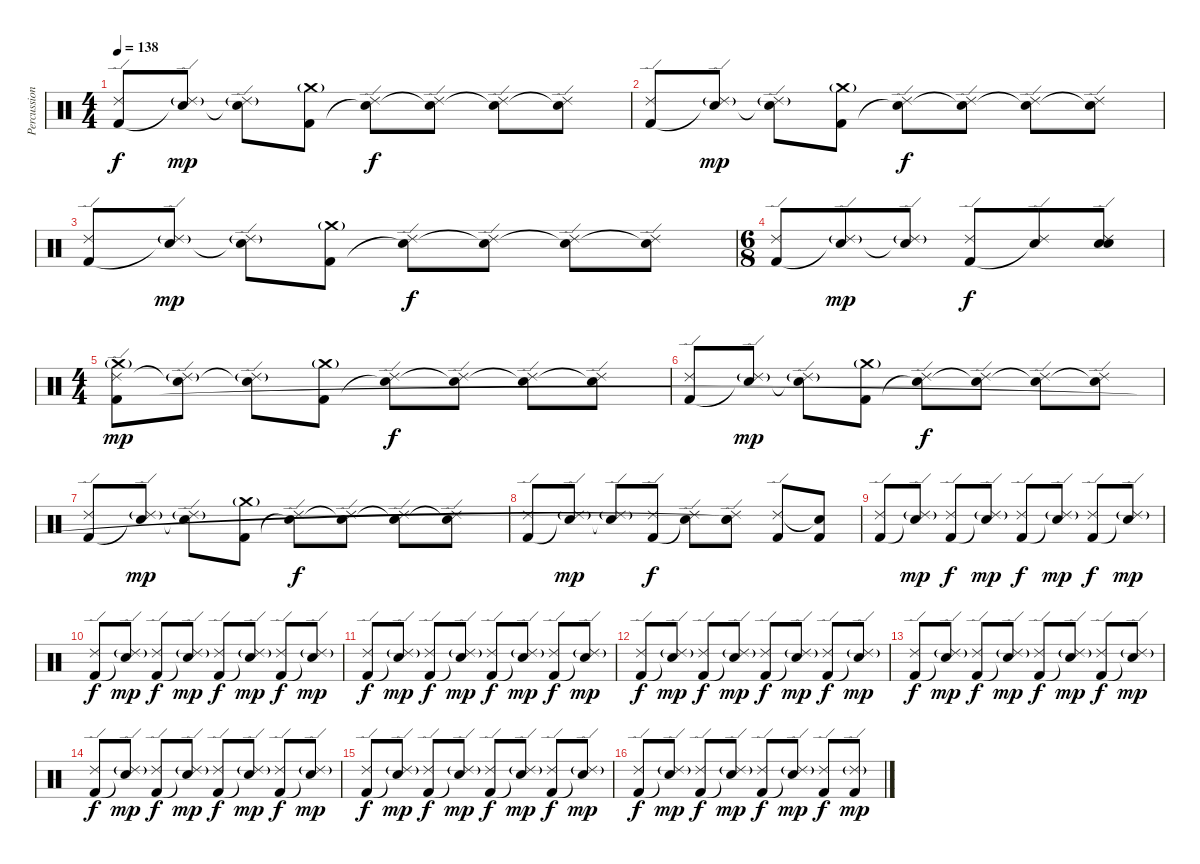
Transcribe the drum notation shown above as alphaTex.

\track ("Percussion" "Percussion") {instrument percussion}
\staff {score}
\articulation defaults
\ts (4 4)
\tempo 138
\clef neutral
\ks c
("Ride (edge) 2" "Kick (hit) 2").8{dy f} ("Ride (edge) 2"{g} "Snare (hit)"{t}).8{dy mp} ("Ride (edge) 2"{g} "Snare (hit)"{t}).8 ("Crash medium (hit)"{g} "Kick (hit) 2").8 ("Ride (edge) 2" "Snare (hit)"{t}).8{dy f} ("Ride (edge) 2" "Snare (hit)"{t}).8 ("Ride (edge) 2" "Snare (hit)"{t}).8 ("Ride (edge) 2" "Snare (hit)"{t}).8 |
("Ride (edge) 2" "Kick (hit) 2").8 ("Ride (edge) 2"{g} "Snare (hit)"{t}).8{dy mp} ("Ride (edge) 2"{g} "Snare (hit)"{t}).8 ("Crash medium (hit)"{g} "Kick (hit) 2").8 ("Ride (edge) 2" "Snare (hit)"{t}).8{dy f} ("Ride (edge) 2" "Snare (hit)"{t}).8 ("Ride (edge) 2" "Snare (hit)"{t}).8 ("Ride (edge) 2" "Snare (hit)"{t}).8 |
("Ride (edge) 2" "Kick (hit) 2").8 ("Ride (edge) 2"{g} "Snare (hit)"{t}).8{dy mp} ("Ride (edge) 2"{g} "Snare (hit)"{t}).8 ("Crash medium (hit)"{g} "Kick (hit) 2").8 ("Ride (edge) 2" "Snare (hit)"{t}).8{dy f} ("Ride (edge) 2" "Snare (hit)"{t}).8 ("Ride (edge) 2" "Snare (hit)"{t}).8 ("Ride (edge) 2" "Snare (hit)"{t}).8 |
\ts (6 8)
("Ride (edge) 2" "Kick (hit) 2").8 ("Ride (edge) 2"{g} "Snare (hit)"{t}).8{dy mp} ("Ride (edge) 2"{g} "Snare (hit)"{t}).8 ("Ride (edge) 2" "Kick (hit) 2").8{dy f} ("Ride (edge) 2" "Snare (hit)"{t}).8 ("Ride (edge) 2" "Snare (hit) 2" "Snare (hit)").8 |
\ts (4 4)
("Crash medium (hit)"{g} "Ride (edge) 2" "Kick (hit) 2").8{dy mp} ("Ride (edge) 2"{g} "Snare (hit)"{t}).8 ("Ride (edge) 2"{g} "Snare (hit)"{t}).8 ("Crash medium (hit)"{g} "Kick (hit) 2").8 ("Ride (edge) 2" "Snare (hit)"{t}).8{dy f} ("Ride (edge) 2" "Snare (hit)"{t}).8 ("Ride (edge) 2" "Snare (hit)"{t}).8 ("Ride (edge) 2" "Snare (hit)"{t}).8 |
("Ride (edge) 2" "Kick (hit) 2").8 ("Ride (edge) 2"{g} "Snare (hit)"{t}).8{dy mp} ("Ride (edge) 2"{g} "Snare (hit)"{t}).8 ("Crash medium (hit)"{g} "Kick (hit) 2").8 ("Ride (edge) 2" "Snare (hit)"{t}).8{dy f} ("Ride (edge) 2" "Snare (hit)"{t}).8 ("Ride (edge) 2" "Snare (hit)"{t}).8 ("Ride (edge) 2" "Snare (hit)"{t}).8 |
("Ride (edge) 2" "Kick (hit) 2").8 ("Ride (edge) 2"{g} "Snare (hit)"{t}).8{dy mp} ("Ride (edge) 2"{g} "Snare (hit)"{t}).8 ("Crash medium (hit)"{g} "Kick (hit) 2").8 ("Ride (edge) 2" "Snare (hit)"{t}).8{dy f} ("Ride (edge) 2" "Snare (hit)"{t}).8 ("Ride (edge) 2" "Snare (hit)"{t}).8 ("Ride (edge) 2" "Snare (hit)"{t}).8 |
("Ride (edge) 2" "Kick (hit) 2").8 ("Ride (edge) 2"{g} "Snare (hit)"{t}).8{dy mp} ("Ride (edge) 2"{g} "Snare (hit)"{t}).8 ("Ride (edge) 2" "Kick (hit) 2").8{dy f} ("Ride (edge) 2" "Snare (hit)"{t}).8 ("Ride (edge) 2" "Snare (hit) 2" "Snare (hit)"{t}).8 ("Ride (edge) 2" "Kick (hit) 2").8 ("Snare (hit)"{t} "Kick (hit) 2").8 |
("Ride (edge) 2" "Kick (hit) 2").8 ("Ride (edge) 2"{g} "Snare (hit)"{t}).8{dy mp} ("Ride (edge) 2" "Kick (hit) 2").8{dy f} ("Ride (edge) 2"{g} "Snare (hit)"{t}).8{dy mp} ("Ride (edge) 2" "Kick (hit) 2").8{dy f} ("Ride (edge) 2"{g} "Snare (hit)"{t}).8{dy mp} ("Ride (edge) 2" "Kick (hit) 2").8{dy f} ("Ride (edge) 2"{g} "Snare (hit)"{t}).8{dy mp} |
("Ride (edge) 2" "Kick (hit) 2").8{dy f} ("Ride (edge) 2"{g} "Snare (hit)"{t}).8{dy mp} ("Ride (edge) 2" "Kick (hit) 2").8{dy f} ("Ride (edge) 2"{g} "Snare (hit)"{t}).8{dy mp} ("Ride (edge) 2" "Kick (hit) 2").8{dy f} ("Ride (edge) 2"{g} "Snare (hit)"{t}).8{dy mp} ("Ride (edge) 2" "Kick (hit) 2").8{dy f} ("Ride (edge) 2"{g} "Snare (hit)"{t}).8{dy mp} |
("Ride (edge) 2" "Kick (hit) 2").8{dy f} ("Ride (edge) 2"{g} "Snare (hit)"{t}).8{dy mp} ("Ride (edge) 2" "Kick (hit) 2").8{dy f} ("Ride (edge) 2"{g} "Snare (hit)"{t}).8{dy mp} ("Ride (edge) 2" "Kick (hit) 2").8{dy f} ("Ride (edge) 2"{g} "Snare (hit)"{t}).8{dy mp} ("Ride (edge) 2" "Kick (hit) 2").8{dy f} ("Ride (edge) 2"{g} "Snare (hit)"{t}).8{dy mp} |
("Ride (edge) 2" "Kick (hit) 2").8{dy f} ("Ride (edge) 2"{g} "Snare (hit)"{t}).8{dy mp} ("Ride (edge) 2" "Kick (hit) 2").8{dy f} ("Ride (edge) 2"{g} "Snare (hit)"{t}).8{dy mp} ("Ride (edge) 2" "Kick (hit) 2").8{dy f} ("Ride (edge) 2"{g} "Snare (hit)"{t}).8{dy mp} ("Ride (edge) 2" "Kick (hit) 2").8{dy f} ("Ride (edge) 2"{g} "Snare (hit)"{t}).8{dy mp} |
("Ride (edge) 2" "Kick (hit) 2").8{dy f} ("Ride (edge) 2"{g} "Snare (hit)"{t}).8{dy mp} ("Ride (edge) 2" "Kick (hit) 2").8{dy f} ("Ride (edge) 2"{g} "Snare (hit)"{t}).8{dy mp} ("Ride (edge) 2" "Kick (hit) 2").8{dy f} ("Ride (edge) 2"{g} "Snare (hit)"{t}).8{dy mp} ("Ride (edge) 2" "Kick (hit) 2").8{dy f} ("Ride (edge) 2"{g} "Snare (hit)"{t}).8{dy mp} |
("Ride (edge) 2" "Kick (hit) 2").8{dy f} ("Ride (edge) 2"{g} "Snare (hit)"{t}).8{dy mp} ("Ride (edge) 2" "Kick (hit) 2").8{dy f} ("Ride (edge) 2"{g} "Snare (hit)"{t}).8{dy mp} ("Ride (edge) 2" "Kick (hit) 2").8{dy f} ("Ride (edge) 2"{g} "Snare (hit)"{t}).8{dy mp} ("Ride (edge) 2" "Kick (hit) 2").8{dy f} ("Ride (edge) 2"{g} "Snare (hit)"{t}).8{dy mp} |
("Ride (edge) 2" "Kick (hit) 2").8{dy f} ("Ride (edge) 2"{g} "Snare (hit)"{t}).8{dy mp} ("Ride (edge) 2" "Kick (hit) 2").8{dy f} ("Ride (edge) 2"{g} "Snare (hit)"{t}).8{dy mp} ("Ride (edge) 2" "Kick (hit) 2").8{dy f} ("Ride (edge) 2"{g} "Snare (hit)"{t}).8{dy mp} ("Ride (edge) 2" "Kick (hit) 2").8{dy f} ("Ride (edge) 2"{g} "Snare (hit)"{t}).8{dy mp} |
("Ride (edge) 2" "Kick (hit) 2").8{dy f} ("Ride (edge) 2"{g} "Snare (hit)"{t}).8{dy mp} ("Ride (edge) 2" "Kick (hit) 2").8{dy f} ("Ride (edge) 2"{g} "Snare (hit)"{t}).8{dy mp} ("Ride (edge) 2" "Kick (hit) 2").8{dy f} ("Ride (edge) 2"{g} "Snare (hit)"{t}).8{dy mp} ("Ride (edge) 2" "Kick (hit) 2").8{dy f} ("Ride (edge) 2"{g} "Kick (hit) 2").8{dy mp}
